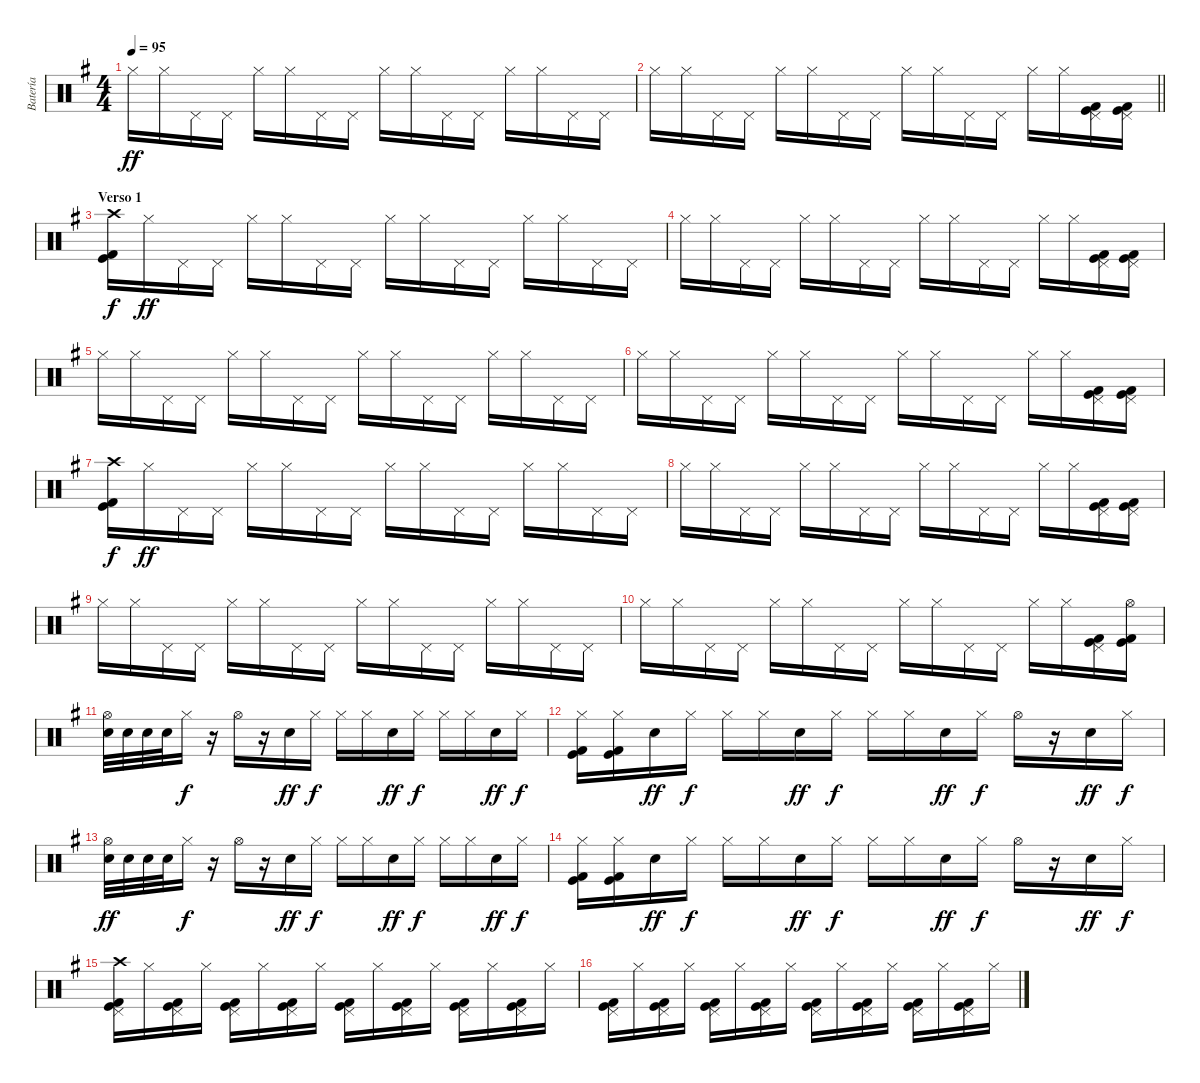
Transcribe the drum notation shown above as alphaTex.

\track ("Batería" "Batería") {instrument percussion}
\staff {score}
\articulation defaults
\ts (4 4)
\tempo 95
\clef neutral
\ks g "Hi-Hat (closed)".16{dy ff} "Hi-Hat (closed)".16 "Pedal Hi-Hat (hit)".16 "Pedal Hi-Hat (hit)".16 "Hi-Hat (closed)".16 "Hi-Hat (closed)".16 "Pedal Hi-Hat (hit)".16 "Pedal Hi-Hat (hit)".16 "Hi-Hat (closed)".16 "Hi-Hat (closed)".16 "Pedal Hi-Hat (hit)".16 "Pedal Hi-Hat (hit)".16 "Hi-Hat (closed)".16 "Hi-Hat (closed)".16 "Pedal Hi-Hat (hit)".16 "Pedal Hi-Hat (hit)".16
|
\barLineRight lightlight "Hi-Hat (closed)".16 "Hi-Hat (closed)".16 "Pedal Hi-Hat (hit)".16 "Pedal Hi-Hat (hit)".16 "Hi-Hat (closed)".16 "Hi-Hat (closed)".16 "Pedal Hi-Hat (hit)".16 "Pedal Hi-Hat (hit)".16 "Hi-Hat (closed)".16 "Hi-Hat (closed)".16 "Pedal Hi-Hat (hit)".16 "Pedal Hi-Hat (hit)".16 "Hi-Hat (closed)".16 "Hi-Hat (closed)".16
("Pedal Hi-Hat (hit)" "Kick (hit) 2" "Kick (hit)").16 ("Pedal Hi-Hat (hit)" "Kick (hit) 2" "Kick (hit)").16 |
\section ("" "Verso 1")
("Crash high (hit)" "Kick (hit) 2" "Kick (hit)").16{dy f} "Hi-Hat (closed)".16{dy ff} "Pedal Hi-Hat (hit)".16 "Pedal Hi-Hat (hit)".16 "Hi-Hat (closed)".16 "Hi-Hat (closed)".16 "Pedal Hi-Hat (hit)".16 "Pedal Hi-Hat (hit)".16 "Hi-Hat (closed)".16 "Hi-Hat (closed)".16 "Pedal Hi-Hat (hit)".16 "Pedal Hi-Hat (hit)".16 "Hi-Hat (closed)".16 "Hi-Hat (closed)".16 "Pedal Hi-Hat (hit)".16 "Pedal Hi-Hat (hit)".16 |
"Hi-Hat (closed)".16 "Hi-Hat (closed)".16 "Pedal Hi-Hat (hit)".16 "Pedal Hi-Hat (hit)".16 "Hi-Hat (closed)".16 "Hi-Hat (closed)".16 "Pedal Hi-Hat (hit)".16 "Pedal Hi-Hat (hit)".16 "Hi-Hat (closed)".16 "Hi-Hat (closed)".16 "Pedal Hi-Hat (hit)".16 "Pedal Hi-Hat (hit)".16 "Hi-Hat (closed)".16 "Hi-Hat (closed)".16 ("Pedal Hi-Hat (hit)" "Kick (hit) 2" "Kick (hit)").16 ("Pedal Hi-Hat (hit)" "Kick (hit) 2" "Kick (hit)").16 |
"Hi-Hat (closed)".16 "Hi-Hat (closed)".16 "Pedal Hi-Hat (hit)".16 "Pedal Hi-Hat (hit)".16 "Hi-Hat (closed)".16 "Hi-Hat (closed)".16 "Pedal Hi-Hat (hit)".16 "Pedal Hi-Hat (hit)".16 "Hi-Hat (closed)".16 "Hi-Hat (closed)".16 "Pedal Hi-Hat (hit)".16 "Pedal Hi-Hat (hit)".16 "Hi-Hat (closed)".16 "Hi-Hat (closed)".16 "Pedal Hi-Hat (hit)".16 "Pedal Hi-Hat (hit)".16 |
"Hi-Hat (closed)".16 "Hi-Hat (closed)".16 "Pedal Hi-Hat (hit)".16 "Pedal Hi-Hat (hit)".16 "Hi-Hat (closed)".16 "Hi-Hat (closed)".16 "Pedal Hi-Hat (hit)".16 "Pedal Hi-Hat (hit)".16 "Hi-Hat (closed)".16 "Hi-Hat (closed)".16 "Pedal Hi-Hat (hit)".16 "Pedal Hi-Hat (hit)".16 "Hi-Hat (closed)".16 "Hi-Hat (closed)".16 ("Pedal Hi-Hat (hit)" "Kick (hit) 2" "Kick (hit)").16 ("Pedal Hi-Hat (hit)" "Kick (hit) 2" "Kick (hit)").16 |
("Crash high (hit)" "Kick (hit) 2" "Kick (hit)").16{dy f} "Hi-Hat (closed)".16{dy ff} "Pedal Hi-Hat (hit)".16 "Pedal Hi-Hat (hit)".16 "Hi-Hat (closed)".16 "Hi-Hat (closed)".16 "Pedal Hi-Hat (hit)".16 "Pedal Hi-Hat (hit)".16 "Hi-Hat (closed)".16 "Hi-Hat (closed)".16 "Pedal Hi-Hat (hit)".16 "Pedal Hi-Hat (hit)".16 "Hi-Hat (closed)".16 "Hi-Hat (closed)".16 "Pedal Hi-Hat (hit)".16 "Pedal Hi-Hat (hit)".16 |
"Hi-Hat (closed)".16 "Hi-Hat (closed)".16 "Pedal Hi-Hat (hit)".16 "Pedal Hi-Hat (hit)".16 "Hi-Hat (closed)".16 "Hi-Hat (closed)".16 "Pedal Hi-Hat (hit)".16 "Pedal Hi-Hat (hit)".16 "Hi-Hat (closed)".16 "Hi-Hat (closed)".16 "Pedal Hi-Hat (hit)".16 "Pedal Hi-Hat (hit)".16 "Hi-Hat (closed)".16 "Hi-Hat (closed)".16 ("Pedal Hi-Hat (hit)" "Kick (hit) 2" "Kick (hit)").16 ("Pedal Hi-Hat (hit)" "Kick (hit) 2" "Kick (hit)").16 |
"Hi-Hat (closed)".16 "Hi-Hat (closed)".16 "Pedal Hi-Hat (hit)".16 "Pedal Hi-Hat (hit)".16 "Hi-Hat (closed)".16 "Hi-Hat (closed)".16 "Pedal Hi-Hat (hit)".16 "Pedal Hi-Hat (hit)".16 "Hi-Hat (closed)".16 "Hi-Hat (closed)".16 "Pedal Hi-Hat (hit)".16 "Pedal Hi-Hat (hit)".16 "Hi-Hat (closed)".16 "Hi-Hat (closed)".16 "Pedal Hi-Hat (hit)".16 "Pedal Hi-Hat (hit)".16 |
"Hi-Hat (closed)".16 "Hi-Hat (closed)".16 "Pedal Hi-Hat (hit)".16 "Pedal Hi-Hat (hit)".16 "Hi-Hat (closed)".16 "Hi-Hat (closed)".16 "Pedal Hi-Hat (hit)".16 "Pedal Hi-Hat (hit)".16 "Hi-Hat (closed)".16 "Hi-Hat (closed)".16 "Pedal Hi-Hat (hit)".16 "Pedal Hi-Hat (hit)".16 "Hi-Hat (closed)".16 "Hi-Hat (closed)".16 ("Pedal Hi-Hat (hit)" "Kick (hit) 2" "Kick (hit)").16 ("Hi-Hat (open)" "Kick (hit) 2" "Kick (hit)").16 |
("Hi-Hat (open)" "Electric Snare (hit)").32 "Electric Snare (hit)".32 "Electric Snare (hit)".32 "Electric Snare (hit)".32 "Hi-Hat (closed)".16{dy f} r.16 "Hi-Hat (open)".16 r.16 "Electric Snare (hit)".16{dy ff} "Hi-Hat (closed)".16{dy f} "Hi-Hat (closed)".16 "Hi-Hat (closed)".16 "Electric Snare (hit)".16{dy ff} "Hi-Hat (closed)".16{dy f} "Hi-Hat (closed)".16 "Hi-Hat (closed)".16 "Electric Snare (hit)".16{dy ff} "Hi-Hat (closed)".16{dy f} |
("Hi-Hat (closed)" "Kick (hit) 2" "Kick (hit)").16 ("Hi-Hat (closed)" "Kick (hit) 2" "Kick (hit)").16 "Electric Snare (hit)".16{dy ff} "Hi-Hat (closed)".16{dy f} "Hi-Hat (closed)".16 "Hi-Hat (closed)".16 "Electric Snare (hit)".16{dy ff} "Hi-Hat (closed)".16{dy f} "Hi-Hat (closed)".16 "Hi-Hat (closed)".16 "Electric Snare (hit)".16{dy ff} "Hi-Hat (closed)".16{dy f} "Hi-Hat (open)".16 r.16 "Electric Snare (hit)".16{dy ff} "Hi-Hat (closed)".16{dy f} |
("Hi-Hat (open)" "Electric Snare (hit)").32{dy ff} "Electric Snare (hit)".32 "Electric Snare (hit)".32 "Electric Snare (hit)".32 "Hi-Hat (closed)".16{dy f} r.16 "Hi-Hat (open)".16 r.16 "Electric Snare (hit)".16{dy ff} "Hi-Hat (closed)".16{dy f} "Hi-Hat (closed)".16 "Hi-Hat (closed)".16 "Electric Snare (hit)".16{dy ff} "Hi-Hat (closed)".16{dy f} "Hi-Hat (closed)".16 "Hi-Hat (closed)".16 "Electric Snare (hit)".16{dy ff} "Hi-Hat (closed)".16{dy f} |
("Hi-Hat (closed)" "Kick (hit) 2" "Kick (hit)").16 ("Hi-Hat (closed)" "Kick (hit) 2" "Kick (hit)").16 "Electric Snare (hit)".16{dy ff} "Hi-Hat (closed)".16{dy f} "Hi-Hat (closed)".16 "Hi-Hat (closed)".16 "Electric Snare (hit)".16{dy ff} "Hi-Hat (closed)".16{dy f} "Hi-Hat (closed)".16 "Hi-Hat (closed)".16 "Electric Snare (hit)".16{dy ff} "Hi-Hat (closed)".16{dy f} "Hi-Hat (open)".16 r.16 "Electric Snare (hit)".16{dy ff} "Hi-Hat (closed)".16{dy f} |
("Crash high (hit)" "Pedal Hi-Hat (hit)" "Kick (hit) 2" "Kick (hit)").16 "Hi-Hat (closed)".16 ("Pedal Hi-Hat (hit)" "Kick (hit) 2" "Kick (hit)").16 "Hi-Hat (closed)".16 ("Pedal Hi-Hat (hit)" "Kick (hit) 2" "Kick (hit)").16 "Hi-Hat (closed)".16 ("Pedal Hi-Hat (hit)" "Kick (hit) 2" "Kick (hit)").16 "Hi-Hat (closed)".16 ("Pedal Hi-Hat (hit)" "Kick (hit) 2" "Kick (hit)").16 "Hi-Hat (closed)".16 ("Pedal Hi-Hat (hit)" "Kick (hit) 2" "Kick (hit)").16 "Hi-Hat (closed)".16 ("Pedal Hi-Hat (hit)" "Kick (hit) 2" "Kick (hit)").16 "Hi-Hat (closed)".16 ("Pedal Hi-Hat (hit)" "Kick (hit) 2" "Kick (hit)").16 "Hi-Hat (closed)".16 |
("Pedal Hi-Hat (hit)" "Kick (hit) 2" "Kick (hit)").16 "Hi-Hat (closed)".16 ("Pedal Hi-Hat (hit)" "Kick (hit) 2" "Kick (hit)").16 "Hi-Hat (closed)".16 ("Pedal Hi-Hat (hit)" "Kick (hit) 2" "Kick (hit)").16 "Hi-Hat (closed)".16 ("Pedal Hi-Hat (hit)" "Kick (hit) 2" "Kick (hit)").16 "Hi-Hat (closed)".16 ("Pedal Hi-Hat (hit)" "Kick (hit) 2" "Kick (hit)").16 "Hi-Hat (closed)".16 ("Pedal Hi-Hat (hit)" "Kick (hit) 2" "Kick (hit)").16 "Hi-Hat (closed)".16 ("Pedal Hi-Hat (hit)" "Kick (hit) 2" "Kick (hit)").16 "Hi-Hat (closed)".16 ("Pedal Hi-Hat (hit)" "Kick (hit) 2" "Kick (hit)").16 "Hi-Hat (closed)".16
